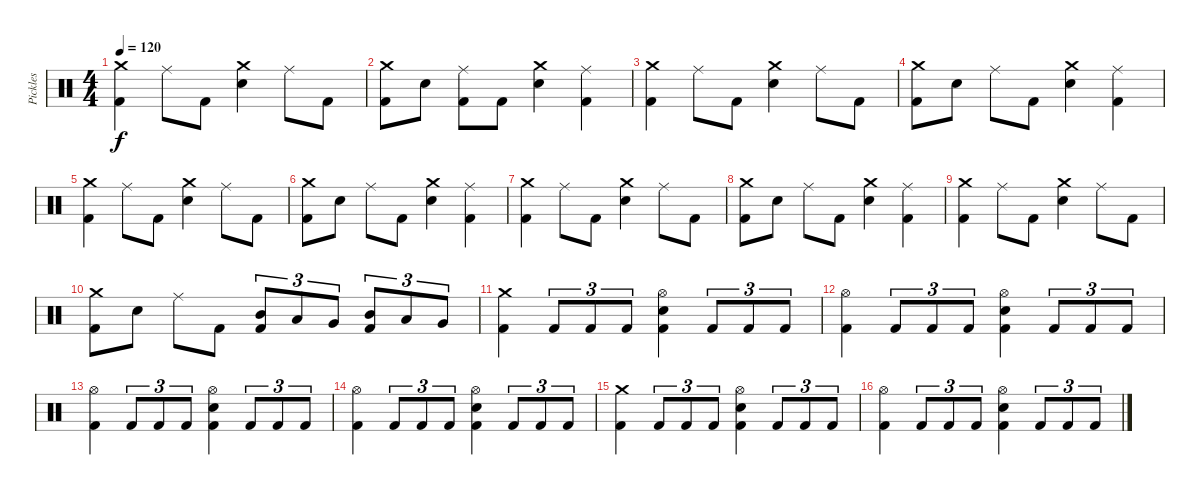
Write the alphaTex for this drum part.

\track ("Pickles" "Pickles") {instrument percussion}
\staff {score}
\articulation defaults
\ts (4 4)
\tempo 120
\clef neutral
\ks c
("Crash medium (hit)" "Kick (hit) 2").4{dy f} "Ride (middle)".8 "Kick (hit) 2".8 ("Crash medium (hit)" "Electric Snare (hit)").4 "Ride (middle)".8 "Kick (hit) 2".8 |
("Crash medium (hit)" "Kick (hit) 2").8 "Electric Snare (hit)".8 ("Ride (middle)" "Kick (hit) 2").8 "Kick (hit) 2".8 ("Crash medium (hit)" "Electric Snare (hit)").4 ("Ride (middle)" "Kick (hit) 2").4 |
("Crash medium (hit)" "Kick (hit) 2").4 "Ride (middle)".8 "Kick (hit) 2".8 ("Crash medium (hit)" "Electric Snare (hit)").4 "Ride (middle)".8 "Kick (hit) 2".8 |
("Crash medium (hit)" "Kick (hit) 2").8 "Electric Snare (hit)".8 "Ride (middle)".8 "Kick (hit) 2".8 ("Crash medium (hit)" "Electric Snare (hit)").4 ("Ride (middle)" "Kick (hit) 2").4 |
("Crash medium (hit)" "Kick (hit) 2").4 "Ride (middle)".8 "Kick (hit) 2".8 ("Crash medium (hit)" "Electric Snare (hit)").4 "Ride (middle)".8 "Kick (hit) 2".8 |
("Crash medium (hit)" "Kick (hit) 2").8 "Electric Snare (hit)".8 "Ride (middle)".8 "Kick (hit) 2".8 ("Crash medium (hit)" "Electric Snare (hit)").4 ("Ride (middle)" "Kick (hit) 2").4 |
("Crash medium (hit)" "Kick (hit) 2").4 "Ride (middle)".8 "Kick (hit) 2".8 ("Crash medium (hit)" "Electric Snare (hit)").4 "Ride (middle)".8 "Kick (hit) 2".8 |
("Crash medium (hit)" "Kick (hit) 2").8 "Electric Snare (hit)".8 "Ride (middle)".8 "Kick (hit) 2".8 ("Crash medium (hit)" "Electric Snare (hit)").4 ("Ride (middle)" "Kick (hit) 2").4 |
("Crash medium (hit)" "Kick (hit) 2").4 "Ride (middle)".8 "Kick (hit) 2".8 ("Crash medium (hit)" "Electric Snare (hit)").4 "Ride (middle)".8 "Kick (hit) 2".8 |
("Crash medium (hit)" "Kick (hit) 2").8 "Electric Snare (hit)".8 "Ride (middle)".8 "Kick (hit) 2".8 ("Mid Tom (hit)" "Kick (hit) 2").8{tu (3 2)} "Low Tom (hit)".8{tu (3 2)} "Very Low Tom (hit)".8{tu (3 2)} ("Mid Tom (hit)" "Kick (hit) 2").8{tu (3 2)} "Low Tom (hit)".8{tu (3 2)} "Very Low Tom (hit)".8{tu (3 2)} |
("Crash medium (hit)" "Kick (hit) 2").4 "Kick (hit) 2".8{tu (3 2)} "Kick (hit) 2".8{tu (3 2)} "Kick (hit) 2".8{tu (3 2)} ("Hi-Hat (open)" "Electric Snare (hit)" "Kick (hit) 2").4 "Kick (hit) 2".8{tu (3 2)} "Kick (hit) 2".8{tu (3 2)} "Kick (hit) 2".8{tu (3 2)} |
("Hi-Hat (open)" "Kick (hit) 2").4 "Kick (hit) 2".8{tu (3 2)} "Kick (hit) 2".8{tu (3 2)} "Kick (hit) 2".8{tu (3 2)} ("Hi-Hat (open)" "Electric Snare (hit)" "Kick (hit) 2").4 "Kick (hit) 2".8{tu (3 2)} "Kick (hit) 2".8{tu (3 2)} "Kick (hit) 2".8{tu (3 2)} |
("Hi-Hat (open)" "Kick (hit) 2").4 "Kick (hit) 2".8{tu (3 2)} "Kick (hit) 2".8{tu (3 2)} "Kick (hit) 2".8{tu (3 2)} ("Hi-Hat (open)" "Electric Snare (hit)" "Kick (hit) 2").4 "Kick (hit) 2".8{tu (3 2)} "Kick (hit) 2".8{tu (3 2)} "Kick (hit) 2".8{tu (3 2)} |
("Hi-Hat (open)" "Kick (hit) 2").4 "Kick (hit) 2".8{tu (3 2)} "Kick (hit) 2".8{tu (3 2)} "Kick (hit) 2".8{tu (3 2)} ("Hi-Hat (open)" "Electric Snare (hit)" "Kick (hit) 2").4 "Kick (hit) 2".8{tu (3 2)} "Kick (hit) 2".8{tu (3 2)} "Kick (hit) 2".8{tu (3 2)} |
("Crash medium (hit)" "Kick (hit) 2").4 "Kick (hit) 2".8{tu (3 2)} "Kick (hit) 2".8{tu (3 2)} "Kick (hit) 2".8{tu (3 2)} ("Hi-Hat (open)" "Electric Snare (hit)" "Kick (hit) 2").4 "Kick (hit) 2".8{tu (3 2)} "Kick (hit) 2".8{tu (3 2)} "Kick (hit) 2".8{tu (3 2)} |
("Hi-Hat (open)" "Kick (hit) 2").4 "Kick (hit) 2".8{tu (3 2)} "Kick (hit) 2".8{tu (3 2)} "Kick (hit) 2".8{tu (3 2)} ("Hi-Hat (open)" "Electric Snare (hit)" "Kick (hit) 2").4 "Kick (hit) 2".8{tu (3 2)} "Kick (hit) 2".8{tu (3 2)} "Kick (hit) 2".8{tu (3 2)}
